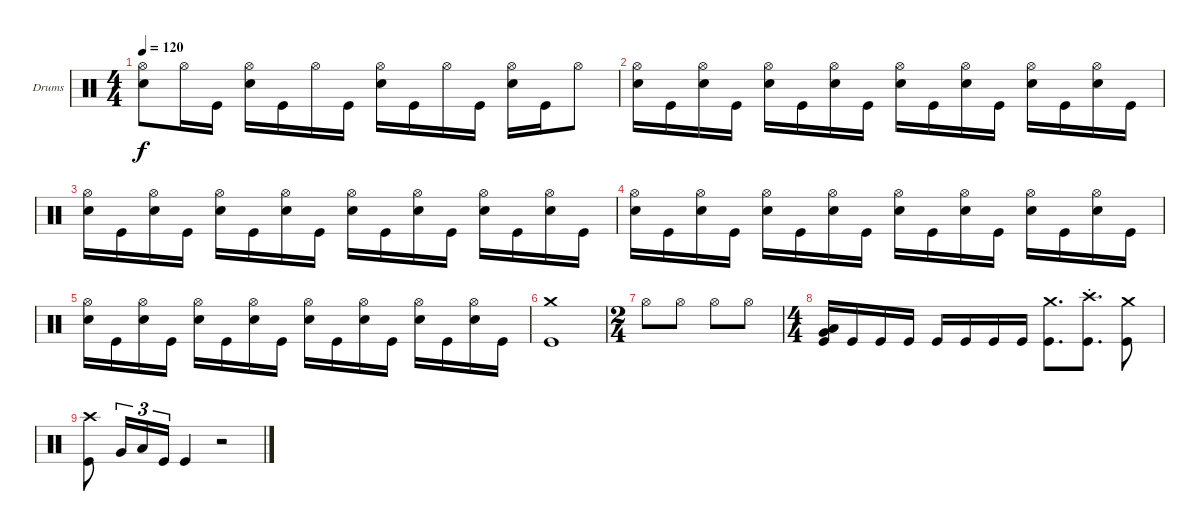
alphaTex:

\bracketExtendMode groupsimilarinstruments
\firstSystemTrackNameOrientation horizontal
\otherSystemsTrackNameOrientation horizontal
\track ("Drumkit" "Drums") {instrument percussion}
\staff {score}
\articulation defaults
\ts (4 4)
\tempo 120
\clef neutral
\ks c
("Hi-Hat (open)" "Snare (hit) 2").8{dy f} "Hi-Hat (open)".16 "Kick (hit)".16 ("Hi-Hat (open)" "Snare (hit) 2").16 "Kick (hit)".16 "Hi-Hat (open)".16 "Kick (hit)".16 ("Hi-Hat (open)" "Snare (hit) 2").16 "Kick (hit)".16 "Hi-Hat (open)".16 "Kick (hit)".16 ("Hi-Hat (open)" "Snare (hit) 2").16 "Kick (hit)".16 "Hi-Hat (open)".8 |
("Hi-Hat (open)" "Snare (hit) 2").16 "Kick (hit)".16 ("Hi-Hat (open)" "Snare (hit) 2").16 "Kick (hit)".16 ("Hi-Hat (open)" "Snare (hit) 2").16 "Kick (hit)".16 ("Hi-Hat (open)" "Snare (hit) 2").16 "Kick (hit)".16 ("Hi-Hat (open)" "Snare (hit) 2").16 "Kick (hit)".16 ("Hi-Hat (open)" "Snare (hit) 2").16 "Kick (hit)".16 ("Hi-Hat (open)" "Snare (hit) 2").16 "Kick (hit)".16 ("Hi-Hat (open)" "Snare (hit) 2").16 "Kick (hit)".16 |
("Hi-Hat (open)" "Snare (hit) 2").16 "Kick (hit)".16 ("Hi-Hat (open)" "Snare (hit) 2").16 "Kick (hit)".16 ("Hi-Hat (open)" "Snare (hit) 2").16 "Kick (hit)".16 ("Hi-Hat (open)" "Snare (hit) 2").16 "Kick (hit)".16 ("Hi-Hat (open)" "Snare (hit) 2").16 "Kick (hit)".16 ("Hi-Hat (open)" "Snare (hit) 2").16 "Kick (hit)".16 ("Hi-Hat (open)" "Snare (hit) 2").16 "Kick (hit)".16 ("Hi-Hat (open)" "Snare (hit) 2").16 "Kick (hit)".16 |
("Hi-Hat (open)" "Snare (hit) 2").16 "Kick (hit)".16 ("Hi-Hat (open)" "Snare (hit) 2").16 "Kick (hit)".16 ("Hi-Hat (open)" "Snare (hit) 2").16 "Kick (hit)".16 ("Hi-Hat (open)" "Snare (hit) 2").16 "Kick (hit)".16 ("Hi-Hat (open)" "Snare (hit) 2").16 "Kick (hit)".16 ("Hi-Hat (open)" "Snare (hit) 2").16 "Kick (hit)".16 ("Hi-Hat (open)" "Snare (hit) 2").16 "Kick (hit)".16 ("Hi-Hat (open)" "Snare (hit) 2").16 "Kick (hit)".16 |
("Hi-Hat (open)" "Snare (hit) 2").16 "Kick (hit)".16 ("Hi-Hat (open)" "Snare (hit) 2").16 "Kick (hit)".16 ("Hi-Hat (open)" "Snare (hit) 2").16 "Kick (hit)".16 ("Hi-Hat (open)" "Snare (hit) 2").16 "Kick (hit)".16 ("Hi-Hat (open)" "Snare (hit) 2").16 "Kick (hit)".16 ("Hi-Hat (open)" "Snare (hit) 2").16 "Kick (hit)".16 ("Hi-Hat (open)" "Snare (hit) 2").16 "Kick (hit)".16 ("Hi-Hat (open)" "Snare (hit) 2").16 "Kick (hit)".16 |
("Crash medium (hit)" "Kick (hit)").1 |
\ts (2 4)
"Hi-Hat (open)".8 "Hi-Hat (open)".8 "Hi-Hat (open)".8 "Hi-Hat (open)".8 |
\ts (4 4)
("Low Tom (hit)" "Very Low Tom (hit)" "Kick (hit)").16 "Kick (hit)".16 "Kick (hit)".16 "Kick (hit)".16 "Kick (hit)".16 "Kick (hit)".16 "Kick (hit)".16 "Kick (hit)".16 ("Crash medium (hit)" "Kick (hit)").8{d} ("Crash high (hit)" "Kick (hit)"{st}).8{d} ("Crash medium (hit)" "Kick (hit)").8 |
("Crash high (hit)" "Kick (hit)").8 "Very Low Tom (hit)".16{tu (3 2)} "Low Tom (hit)".16{tu (3 2)} "Kick (hit)".16{tu (3 2)} "Kick (hit)".4 r.2
